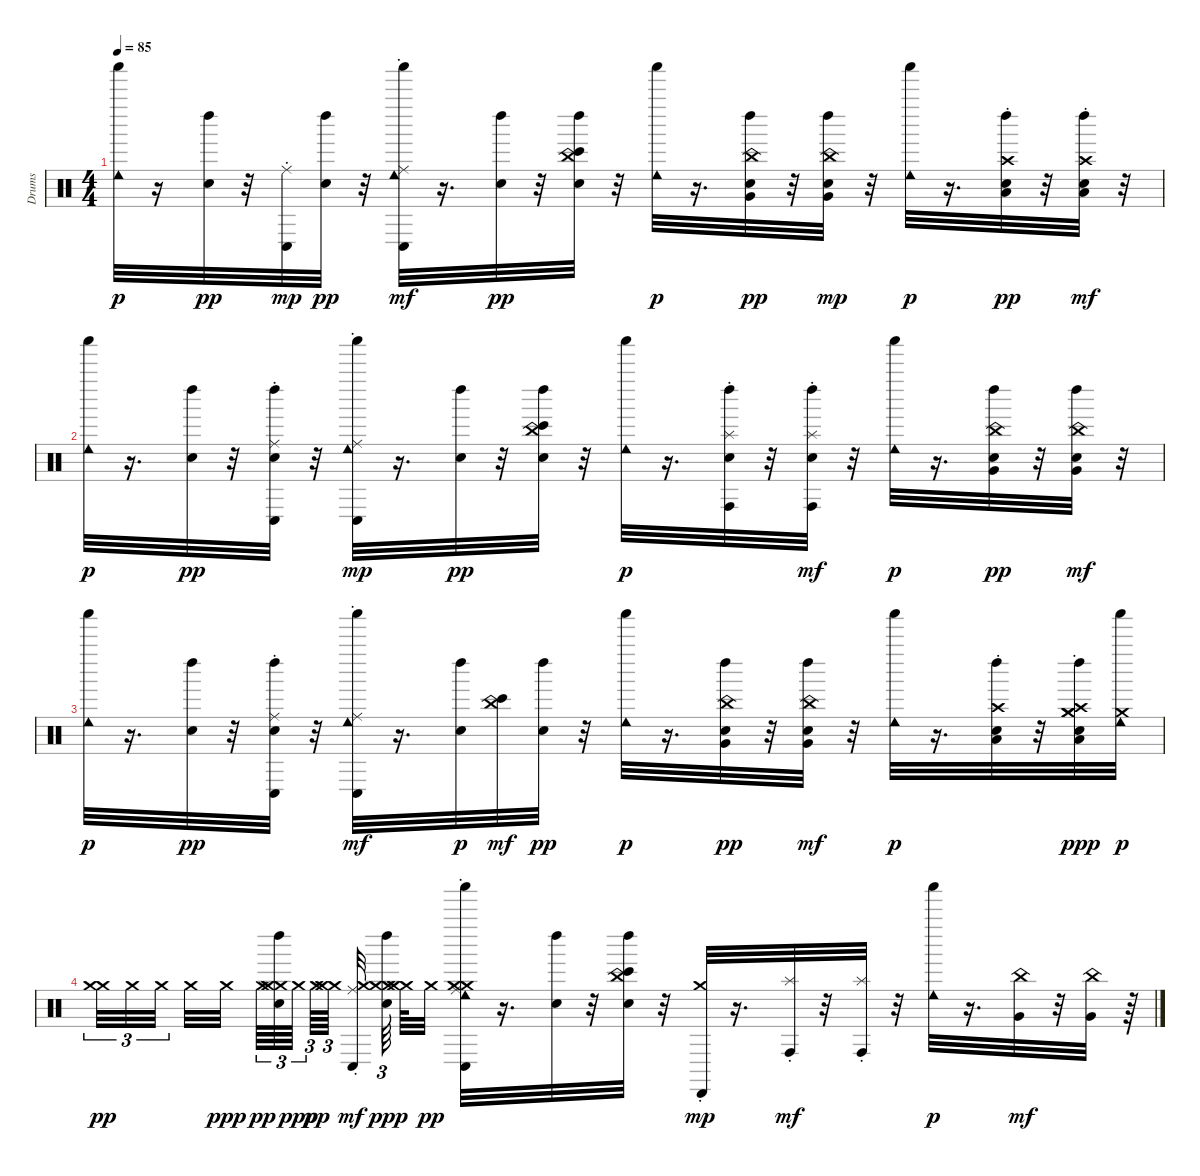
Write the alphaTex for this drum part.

\track ("Drums" "Drums") {instrument percussion}
\staff {score}
\articulation defaults
\ts (4 4)
\tempo 85
\clef neutral
\ks c
("Shaker (hit)" "Cowbell low (hit)").32{dy p} r.16 ("Snare (hit)" "Left Maraca (hit)").32{dy pp} r.32 ("Conga low (hit)" "Ride (choke)").32{dy mp} ("Left Maraca (hit)" "Snare (hit)").32{dy pp} r.32 ("Cowbell low (hit)" "Shaker (hit)" "Ride (choke)" "Conga low (hit)").32{dy mf} r.16{d} ("Left Maraca (hit)" "Snare (hit)").32{dy pp} r.32 ("Bongo High (hit)" "China (choke)" "Left Maraca (hit)" "Snare (hit)").32 r.32 ("Shaker (hit)" "Cowbell low (hit)").32{dy p} r.16{d} ("China (choke)" "Very Low Tom (hit)" "Left Maraca (hit)" "Snare (hit)").32{dy pp} r.32 ("Left Maraca (hit)" "Snare (hit)" "China (choke)" "Very Low Tom (hit)").32{dy mp} r.32 ("Shaker (hit)" "Cowbell low (hit)").32{dy p} r.16{d} ("Crash high (choke)" "Low Floor Tom (hit)" "Left Maraca (hit)" "Snare (hit)").32{dy pp} r.32 ("Left Maraca (hit)" "Snare (hit)" "Low Floor Tom (hit)" "Crash high (choke)").32{dy mf} r.32 |
("Shaker (hit)" "Cowbell low (hit)").32{dy p} r.16{d} ("Left Maraca (hit)" "Snare (hit)").32{dy pp} r.32 ("Conga low (hit)" "Ride (choke)" "Left Maraca (hit)" "Snare (hit)").32 r.32 ("Cowbell low (hit)" "Shaker (hit)" "Conga low (hit)" "Ride (choke)").32{dy mp} r.16{d} ("Left Maraca (hit)" "Snare (hit)").32{dy pp} r.32 ("Bongo High (hit)" "China (choke)" "Left Maraca (hit)" "Snare (hit)").32 r.32 ("Shaker (hit)" "Cowbell low (hit)").32{dy p} r.16{d} ("Conga high (hit)" "Splash (choke)" "Snare (hit)" "Left Maraca (hit)").32 r.32 ("Snare (hit)" "Left Maraca (hit)" "Splash (choke)" "Conga high (hit)").32{dy mf} r.32 ("Shaker (hit)" "Cowbell low (hit)").32{dy p} r.16{d} ("China (choke)" "Very Low Tom (hit)" "Left Maraca (hit)" "Snare (hit)").32{dy pp} r.32 ("Snare (hit)" "Left Maraca (hit)" "China (choke)" "Very Low Tom (hit)").32{dy mf} r.32 |
("Shaker (hit)" "Cowbell low (hit)").32{dy p} r.16{d} ("Snare (hit)" "Left Maraca (hit)").32{dy pp} r.32 ("Conga low (hit)" "Ride (choke)" "Snare (hit)" "Left Maraca (hit)").32 r.32 ("Shaker (hit)" "Cowbell low (hit)" "Ride (choke)" "Conga low (hit)").32{dy mf} r.16{d} ("Snare (hit)" "Left Maraca (hit)").32{dy p} ("China (choke)" "Bongo High (hit)").32{dy mf} ("Left Maraca (hit)" "Snare (hit)").32{dy pp} r.32 ("Shaker (hit)" "Cowbell low (hit)").32{dy p} r.16{d} ("China (choke)" "Very Low Tom (hit)" "Left Maraca (hit)" "Snare (hit)").32{dy pp} r.32 ("Left Maraca (hit)" "Snare (hit)" "China (choke)" "Very Low Tom (hit)").32{dy mf} r.32 ("Shaker (hit)" "Cowbell low (hit)").32{dy p} r.16{d} ("Crash high (choke)" "Low Floor Tom (hit)" "Left Maraca (hit)" "Snare (hit)").32 r.32 ("Left Maraca (hit)" "Crash medium (hit)" "Crash high (choke)" "Snare (hit)" "Low Floor Tom (hit)" "Crash medium (hit)").32{dy ppp} ("Crash medium (hit)" "Shaker (hit)" "Cowbell low (hit)").32{dy p} |
("Crash medium (hit)" "Crash medium (hit)").32{tu (3 2) dy pp} "Crash medium (hit)".32{tu (3 2)} "Crash medium (hit)".32{tu (3 2)} "Crash medium (hit)".32 "Crash medium (hit)".32{dy ppp} "Crash medium (hit)".64{tu (3 2) dy pp} ("Crash medium (hit)" "Left Maraca (hit)" "Snare (hit)" "Crash medium (hit)").64{tu (3 2)} "Crash medium (hit)".64{tu (3 2) dy ppp} "Crash medium (hit)".64{tu (3 2) dy pp} ("Crash medium (hit)" "Crash medium (hit)").64{tu (3 2)} ("Crash medium (hit)" "Conga low (hit)" "Ride (choke)").32{dy mf} ("Snare (hit)" "Left Maraca (hit)" "Crash medium (hit)" "Crash medium (hit)").64{tu (3 2) dy ppp} ("Crash medium (hit)" "Crash medium (hit)").64 "Crash medium (hit)".32{dy pp} ("Crash medium (hit)" "Shaker (hit)" "Cowbell low (hit)" "Conga low (hit)" "Ride (choke)" "Crash medium (hit)").32 r.16{d} ("Left Maraca (hit)" "Snare (hit)").32 r.32 ("Bongo High (hit)" "China (choke)" "Left Maraca (hit)" "Snare (hit)").32 r.32 ("Cabasa (hit)" "Crash medium (choke)").32{dy mp} r.16{d} ("Conga high (hit)" "Splash (choke)").32{dy mf} r.32 ("Splash (choke)" "Conga high (hit)").32 r.32 ("Shaker (hit)" "Cowbell low (hit)").32{dy p} r.16{d} ("China (choke)" "Very Low Tom (hit)").32{dy mf} r.32 ("China (choke)" "Very Low Tom (hit)").32 r.64
